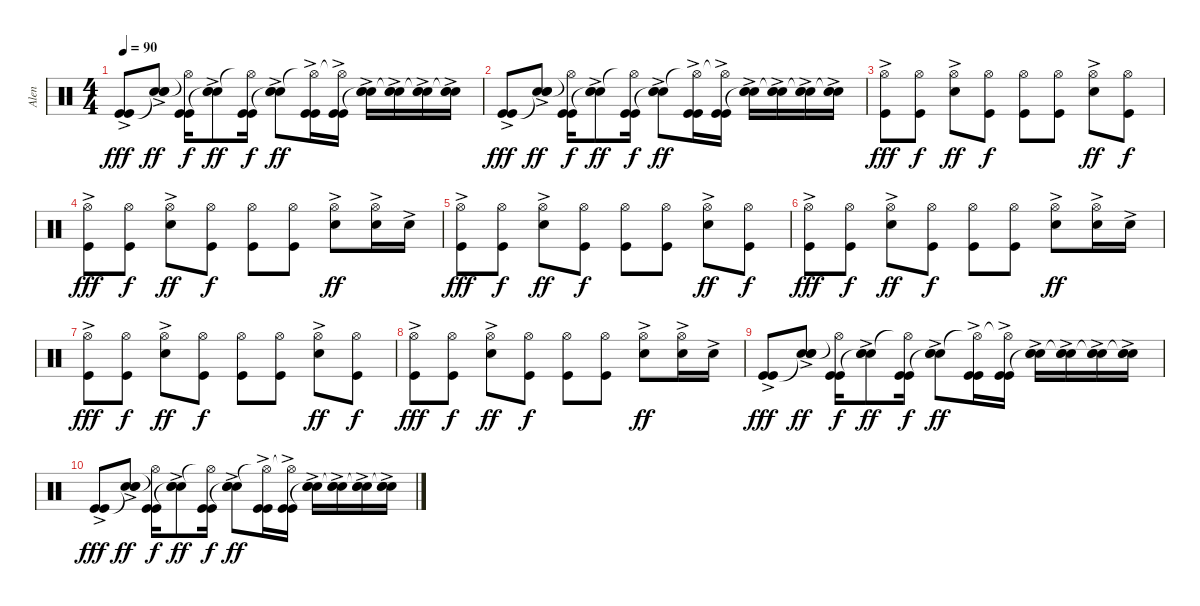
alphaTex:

\track ("Alen" "Alen") {instrument percussion}
\staff {score}
\articulation defaults
\ts (4 4)
\tempo 90
\clef neutral
\ks c
("Kick (hit)"{ac} "Kick (hit)").8{dy fff} ("Electric Snare (hit)"{ac} "Snare (hit)"{t} "Snare (hit) 2").8{dy ff} ("Kick (hit)" "Kick (hit)" "Hi-Hat (open)"{t}).16{dy f} ("Electric Snare (hit)"{ac} "Snare (hit)"{t} "Snare (hit) 2").8{dy ff} ("Kick (hit)" "Kick (hit)" "Hi-Hat (open)"{t}).16{dy f} ("Electric Snare (hit)"{ac} "Snare (hit)"{t} "Snare (hit) 2").8{dy ff} ("Kick (hit)"{ac} "Kick (hit)" "Hi-Hat (open)"{t}).16 ("Kick (hit)"{ac} "Kick (hit)" "Hi-Hat (open)"{t}).16 ("Electric Snare (hit)"{ac} "Snare (hit)"{t} "Snare (hit) 2").16 ("Electric Snare (hit)"{ac} "Snare (hit)"{t} "Snare (hit) 2").16 ("Electric Snare (hit)"{ac} "Snare (hit)"{t} "Snare (hit) 2").16 ("Electric Snare (hit)"{ac} "Snare (hit)"{t} "Snare (hit) 2").16 |
("Kick (hit)"{ac} "Kick (hit)").8{dy fff} ("Electric Snare (hit)"{ac} "Snare (hit)"{t} "Snare (hit) 2").8{dy ff} ("Kick (hit)" "Kick (hit)" "Hi-Hat (open)"{t}).16{dy f} ("Electric Snare (hit)"{ac} "Snare (hit)"{t} "Snare (hit) 2").8{dy ff} ("Kick (hit)" "Kick (hit)" "Hi-Hat (open)"{t}).16{dy f} ("Electric Snare (hit)"{ac} "Snare (hit)"{t} "Snare (hit) 2").8{dy ff} ("Kick (hit)"{ac} "Kick (hit)" "Hi-Hat (open)"{t}).16 ("Kick (hit)"{ac} "Kick (hit)" "Hi-Hat (open)"{t}).16 ("Electric Snare (hit)"{ac} "Snare (hit)"{t} "Snare (hit) 2").16 ("Electric Snare (hit)"{ac} "Snare (hit)"{t} "Snare (hit) 2").16 ("Electric Snare (hit)"{ac} "Snare (hit)"{t} "Snare (hit) 2").16 ("Electric Snare (hit)"{ac} "Snare (hit)"{t} "Snare (hit) 2").16 |
("Kick (hit)"{ac} "Hi-Hat (open)").8{dy fff} ("Kick (hit)" "Hi-Hat (open)").8{dy f} ("Snare (hit) 2"{ac} "Hi-Hat (open)").8{dy ff} ("Kick (hit)" "Hi-Hat (open)").8{dy f} ("Kick (hit)" "Hi-Hat (open)").8 ("Kick (hit)" "Hi-Hat (open)").8 ("Snare (hit) 2"{ac} "Hi-Hat (open)").8{dy ff} ("Kick (hit)" "Hi-Hat (open)").8{dy f} |
("Kick (hit)"{ac} "Hi-Hat (open)").8{dy fff} ("Kick (hit)" "Hi-Hat (open)").8{dy f} ("Snare (hit) 2"{ac} "Hi-Hat (open)").8{dy ff} ("Kick (hit)" "Hi-Hat (open)").8{dy f} ("Kick (hit)" "Hi-Hat (open)").8 ("Kick (hit)" "Hi-Hat (open)").8 ("Snare (hit) 2"{ac} "Hi-Hat (open)").8{dy ff} ("Snare (hit) 2"{ac} "Hi-Hat (open)").16 "Snare (hit) 2"{ac}.16 |
("Kick (hit)"{ac} "Hi-Hat (open)").8{dy fff} ("Kick (hit)" "Hi-Hat (open)").8{dy f} ("Snare (hit) 2"{ac} "Hi-Hat (open)").8{dy ff} ("Kick (hit)" "Hi-Hat (open)").8{dy f} ("Kick (hit)" "Hi-Hat (open)").8 ("Kick (hit)" "Hi-Hat (open)").8 ("Snare (hit) 2"{ac} "Hi-Hat (open)").8{dy ff} ("Kick (hit)" "Hi-Hat (open)").8{dy f} |
("Kick (hit)"{ac} "Hi-Hat (open)").8{dy fff} ("Kick (hit)" "Hi-Hat (open)").8{dy f} ("Snare (hit) 2"{ac} "Hi-Hat (open)").8{dy ff} ("Kick (hit)" "Hi-Hat (open)").8{dy f} ("Kick (hit)" "Hi-Hat (open)").8 ("Kick (hit)" "Hi-Hat (open)").8 ("Snare (hit) 2"{ac} "Hi-Hat (open)").8{dy ff} ("Snare (hit) 2"{ac} "Hi-Hat (open)").16 "Snare (hit) 2"{ac}.16 |
("Kick (hit)"{ac} "Hi-Hat (open)").8{dy fff} ("Kick (hit)" "Hi-Hat (open)").8{dy f} ("Snare (hit) 2"{ac} "Hi-Hat (open)").8{dy ff} ("Kick (hit)" "Hi-Hat (open)").8{dy f} ("Kick (hit)" "Hi-Hat (open)").8 ("Kick (hit)" "Hi-Hat (open)").8 ("Snare (hit) 2"{ac} "Hi-Hat (open)").8{dy ff} ("Kick (hit)" "Hi-Hat (open)").8{dy f} |
("Kick (hit)"{ac} "Hi-Hat (open)").8{dy fff} ("Kick (hit)" "Hi-Hat (open)").8{dy f} ("Snare (hit) 2"{ac} "Hi-Hat (open)").8{dy ff} ("Kick (hit)" "Hi-Hat (open)").8{dy f} ("Kick (hit)" "Hi-Hat (open)").8 ("Kick (hit)" "Hi-Hat (open)").8 ("Snare (hit) 2"{ac} "Hi-Hat (open)").8{dy ff} ("Snare (hit) 2"{ac} "Hi-Hat (open)").16 "Snare (hit) 2"{ac}.16 |
("Kick (hit)"{ac} "Kick (hit)").8{dy fff} ("Electric Snare (hit)"{ac} "Snare (hit)"{t} "Snare (hit) 2").8{dy ff} ("Kick (hit)" "Kick (hit)" "Hi-Hat (open)"{t}).16{dy f} ("Electric Snare (hit)"{ac} "Snare (hit)"{t} "Snare (hit) 2").8{dy ff} ("Kick (hit)" "Kick (hit)" "Hi-Hat (open)"{t}).16{dy f} ("Electric Snare (hit)"{ac} "Snare (hit)"{t} "Snare (hit) 2").8{dy ff} ("Kick (hit)"{ac} "Kick (hit)" "Hi-Hat (open)"{t}).16 ("Kick (hit)"{ac} "Kick (hit)" "Hi-Hat (open)"{t}).16 ("Electric Snare (hit)"{ac} "Snare (hit)"{t} "Snare (hit) 2").16 ("Electric Snare (hit)"{ac} "Snare (hit)"{t} "Snare (hit) 2").16 ("Electric Snare (hit)"{ac} "Snare (hit)"{t} "Snare (hit) 2").16 ("Electric Snare (hit)"{ac} "Snare (hit)"{t} "Snare (hit) 2").16 |
("Kick (hit)"{ac} "Kick (hit)").8{dy fff} ("Electric Snare (hit)"{ac} "Snare (hit)"{t} "Snare (hit) 2").8{dy ff} ("Kick (hit)" "Kick (hit)" "Hi-Hat (open)"{t}).16{dy f} ("Electric Snare (hit)"{ac} "Snare (hit)"{t} "Snare (hit) 2").8{dy ff} ("Kick (hit)" "Kick (hit)" "Hi-Hat (open)"{t}).16{dy f} ("Electric Snare (hit)"{ac} "Snare (hit)"{t} "Snare (hit) 2").8{dy ff} ("Kick (hit)"{ac} "Kick (hit)" "Hi-Hat (open)"{t}).16 ("Kick (hit)"{ac} "Kick (hit)" "Hi-Hat (open)"{t}).16 ("Electric Snare (hit)"{ac} "Snare (hit)"{t} "Snare (hit) 2").16 ("Electric Snare (hit)"{ac} "Snare (hit)"{t} "Snare (hit) 2").16 ("Electric Snare (hit)"{ac} "Snare (hit)"{t} "Snare (hit) 2").16 ("Electric Snare (hit)"{ac} "Snare (hit)"{t} "Snare (hit) 2").16
